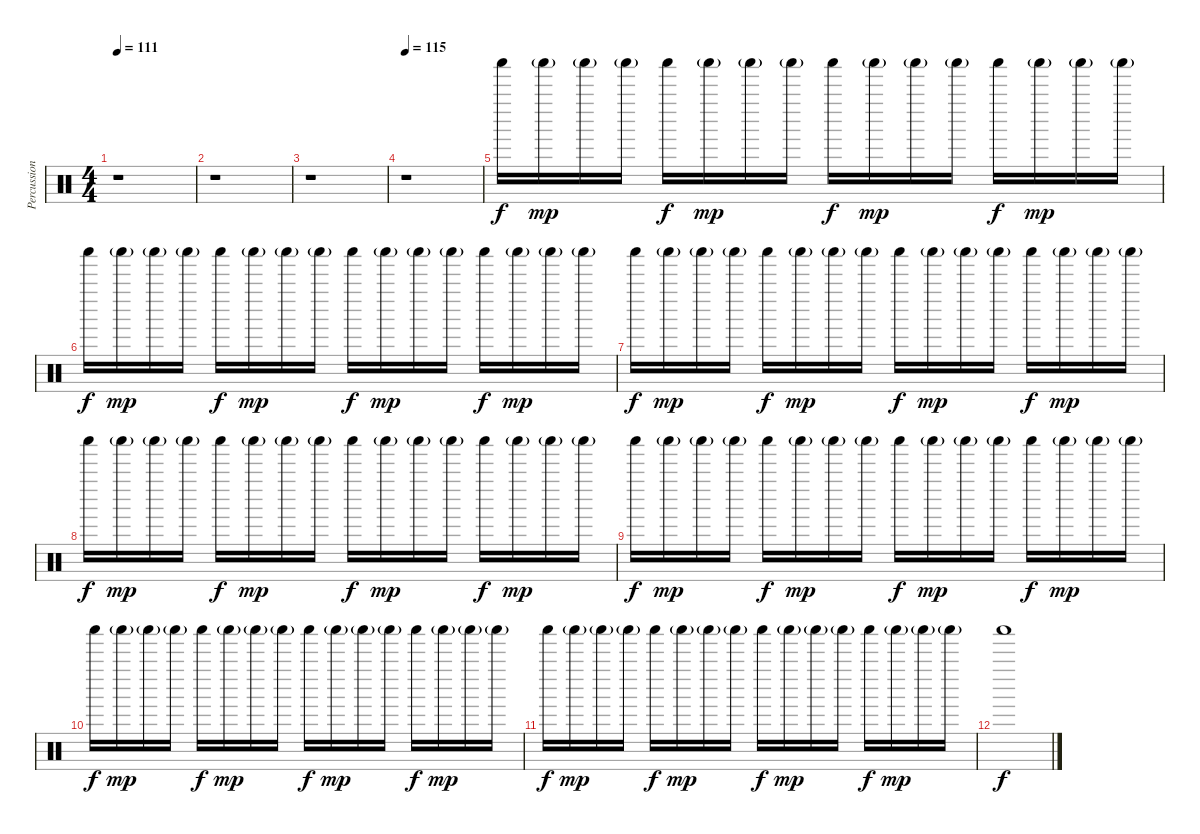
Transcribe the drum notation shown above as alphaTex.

\track ("PercussionShaker" "Percussion") {instrument percussion}
\staff {score}
\articulation defaults
\ts (4 4)
\tempo 111
\clef neutral
\ks c
r.1{dy mp} |
r.1 |
r.1 |
\tempo 115
r.1 |
"Shaker (hit)".16{dy f} "Shaker (hit)"{g}.16{dy mp} "Shaker (hit)"{g}.16 "Shaker (hit)"{g}.16 "Shaker (hit)".16{dy f} "Shaker (hit)"{g}.16{dy mp} "Shaker (hit)"{g}.16 "Shaker (hit)"{g}.16 "Shaker (hit)".16{dy f} "Shaker (hit)"{g}.16{dy mp} "Shaker (hit)"{g}.16 "Shaker (hit)"{g}.16 "Shaker (hit)".16{dy f} "Shaker (hit)"{g}.16{dy mp} "Shaker (hit)"{g}.16 "Shaker (hit)"{g}.16 |
"Shaker (hit)".16{dy f} "Shaker (hit)"{g}.16{dy mp} "Shaker (hit)"{g}.16 "Shaker (hit)"{g}.16 "Shaker (hit)".16{dy f} "Shaker (hit)"{g}.16{dy mp} "Shaker (hit)"{g}.16 "Shaker (hit)"{g}.16 "Shaker (hit)".16{dy f} "Shaker (hit)"{g}.16{dy mp} "Shaker (hit)"{g}.16 "Shaker (hit)"{g}.16 "Shaker (hit)".16{dy f} "Shaker (hit)"{g}.16{dy mp} "Shaker (hit)"{g}.16 "Shaker (hit)"{g}.16 |
"Shaker (hit)".16{dy f} "Shaker (hit)"{g}.16{dy mp} "Shaker (hit)"{g}.16 "Shaker (hit)"{g}.16 "Shaker (hit)".16{dy f} "Shaker (hit)"{g}.16{dy mp} "Shaker (hit)"{g}.16 "Shaker (hit)"{g}.16 "Shaker (hit)".16{dy f} "Shaker (hit)"{g}.16{dy mp} "Shaker (hit)"{g}.16 "Shaker (hit)"{g}.16 "Shaker (hit)".16{dy f} "Shaker (hit)"{g}.16{dy mp} "Shaker (hit)"{g}.16 "Shaker (hit)"{g}.16 |
"Shaker (hit)".16{dy f} "Shaker (hit)"{g}.16{dy mp} "Shaker (hit)"{g}.16 "Shaker (hit)"{g}.16 "Shaker (hit)".16{dy f} "Shaker (hit)"{g}.16{dy mp} "Shaker (hit)"{g}.16 "Shaker (hit)"{g}.16 "Shaker (hit)".16{dy f} "Shaker (hit)"{g}.16{dy mp} "Shaker (hit)"{g}.16 "Shaker (hit)"{g}.16 "Shaker (hit)".16{dy f} "Shaker (hit)"{g}.16{dy mp} "Shaker (hit)"{g}.16 "Shaker (hit)"{g}.16 |
"Shaker (hit)".16{dy f} "Shaker (hit)"{g}.16{dy mp} "Shaker (hit)"{g}.16 "Shaker (hit)"{g}.16 "Shaker (hit)".16{dy f} "Shaker (hit)"{g}.16{dy mp} "Shaker (hit)"{g}.16 "Shaker (hit)"{g}.16 "Shaker (hit)".16{dy f} "Shaker (hit)"{g}.16{dy mp} "Shaker (hit)"{g}.16 "Shaker (hit)"{g}.16 "Shaker (hit)".16{dy f} "Shaker (hit)"{g}.16{dy mp} "Shaker (hit)"{g}.16 "Shaker (hit)"{g}.16 |
"Shaker (hit)".16{dy f} "Shaker (hit)"{g}.16{dy mp} "Shaker (hit)"{g}.16 "Shaker (hit)"{g}.16 "Shaker (hit)".16{dy f} "Shaker (hit)"{g}.16{dy mp} "Shaker (hit)"{g}.16 "Shaker (hit)"{g}.16 "Shaker (hit)".16{dy f} "Shaker (hit)"{g}.16{dy mp} "Shaker (hit)"{g}.16 "Shaker (hit)"{g}.16 "Shaker (hit)".16{dy f} "Shaker (hit)"{g}.16{dy mp} "Shaker (hit)"{g}.16 "Shaker (hit)"{g}.16 |
"Shaker (hit)".16{dy f} "Shaker (hit)"{g}.16{dy mp} "Shaker (hit)"{g}.16 "Shaker (hit)"{g}.16 "Shaker (hit)".16{dy f} "Shaker (hit)"{g}.16{dy mp} "Shaker (hit)"{g}.16 "Shaker (hit)"{g}.16 "Shaker (hit)".16{dy f} "Shaker (hit)"{g}.16{dy mp} "Shaker (hit)"{g}.16 "Shaker (hit)"{g}.16 "Shaker (hit)".16{dy f} "Shaker (hit)"{g}.16{dy mp} "Shaker (hit)"{g}.16 "Shaker (hit)"{g}.16 |
"Shaker (hit)".1{dy f}
